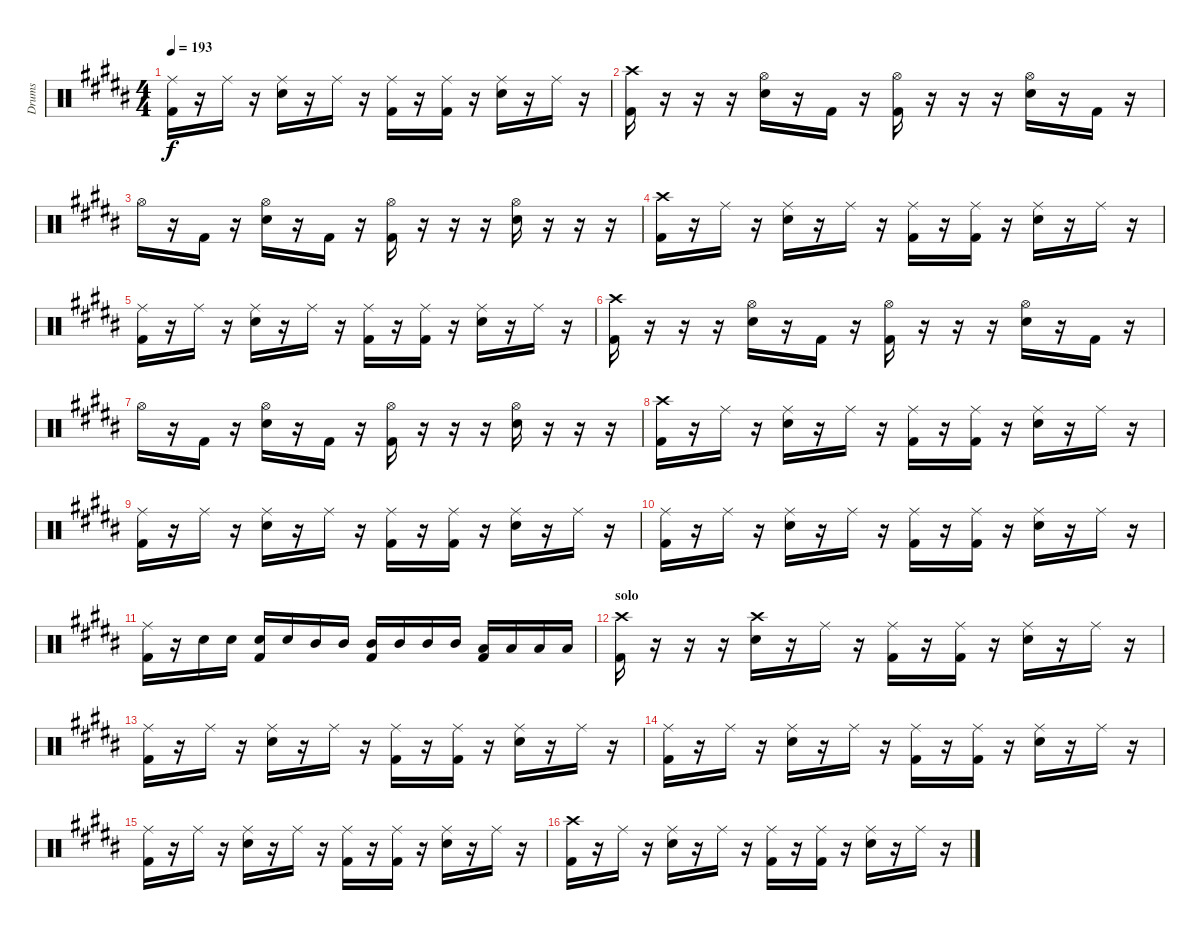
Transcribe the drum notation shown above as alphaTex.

\track ("Drums" "Drums") {instrument percussion}
\staff {score}
\articulation defaults
\ts (4 4)
\tempo 193
\clef neutral
\ks b
("Ride (middle)" "Kick (hit) 2").16{dy f} r.16 "Ride (middle)".16 r.16 ("Electric Snare (hit)" "Ride (middle)").16 r.16 "Ride (middle)".16 r.16 ("Ride (middle)" "Kick (hit) 2").16 r.16 ("Ride (middle)" "Kick (hit) 2").16 r.16 ("Electric Snare (hit)" "Ride (middle)").16 r.16 "Ride (middle)".16 r.16 |
("Crash high (hit)" "Kick (hit) 2").16 r.16 r.16 r.16 ("Electric Snare (hit)" "Hi-Hat (open)").16 r.16 "Kick (hit) 2".16 r.16 ("Hi-Hat (open)" "Kick (hit) 2").16 r.16 r.16 r.16 ("Electric Snare (hit)" "Hi-Hat (open)").16 r.16 "Kick (hit) 2".16 r.16 |
"Hi-Hat (open)".16 r.16 "Kick (hit) 2".16 r.16 ("Electric Snare (hit)" "Hi-Hat (open)").16 r.16 "Kick (hit) 2".16 r.16 ("Hi-Hat (open)" "Kick (hit) 2").16 r.16 r.16 r.16 ("Electric Snare (hit)" "Hi-Hat (open)").16 r.16 r.16 r.16 |
("Crash high (hit)" "Kick (hit) 2").16 r.16 "Ride (middle)".16 r.16 ("Electric Snare (hit)" "Ride (middle)").16 r.16 "Ride (middle)".16 r.16 ("Ride (middle)" "Kick (hit) 2").16 r.16 ("Ride (middle)" "Kick (hit) 2").16 r.16 ("Electric Snare (hit)" "Ride (middle)").16 r.16 "Ride (middle)".16 r.16 |
("Ride (middle)" "Kick (hit) 2").16 r.16 "Ride (middle)".16 r.16 ("Electric Snare (hit)" "Ride (middle)").16 r.16 "Ride (middle)".16 r.16 ("Ride (middle)" "Kick (hit) 2").16 r.16 ("Ride (middle)" "Kick (hit) 2").16 r.16 ("Electric Snare (hit)" "Ride (middle)").16 r.16 "Ride (middle)".16 r.16 |
("Crash high (hit)" "Kick (hit) 2").16 r.16 r.16 r.16 ("Electric Snare (hit)" "Hi-Hat (open)").16 r.16 "Kick (hit) 2".16 r.16 ("Hi-Hat (open)" "Kick (hit) 2").16 r.16 r.16 r.16 ("Electric Snare (hit)" "Hi-Hat (open)").16 r.16 "Kick (hit) 2".16 r.16 |
"Hi-Hat (open)".16 r.16 "Kick (hit) 2".16 r.16 ("Electric Snare (hit)" "Hi-Hat (open)").16 r.16 "Kick (hit) 2".16 r.16 ("Hi-Hat (open)" "Kick (hit) 2").16 r.16 r.16 r.16 ("Electric Snare (hit)" "Hi-Hat (open)").16 r.16 r.16 r.16 |
("Crash high (hit)" "Kick (hit) 2").16 r.16 "Ride (middle)".16 r.16 ("Electric Snare (hit)" "Ride (middle)").16 r.16 "Ride (middle)".16 r.16 ("Ride (middle)" "Kick (hit) 2").16 r.16 ("Ride (middle)" "Kick (hit) 2").16 r.16 ("Electric Snare (hit)" "Ride (middle)").16 r.16 "Ride (middle)".16 r.16 |
("Ride (middle)" "Kick (hit) 2").16 r.16 "Ride (middle)".16 r.16 ("Electric Snare (hit)" "Ride (middle)").16 r.16 "Ride (middle)".16 r.16 ("Ride (middle)" "Kick (hit) 2").16 r.16 ("Ride (middle)" "Kick (hit) 2").16 r.16 ("Electric Snare (hit)" "Ride (middle)").16 r.16 "Ride (middle)".16 r.16 |
("Ride (middle)" "Kick (hit) 2").16 r.16 "Ride (middle)".16 r.16 ("Electric Snare (hit)" "Ride (middle)").16 r.16 "Ride (middle)".16 r.16 ("Ride (middle)" "Kick (hit) 2").16 r.16 ("Ride (middle)" "Kick (hit) 2").16 r.16 ("Electric Snare (hit)" "Ride (middle)").16 r.16 "Ride (middle)".16 r.16 |
("Ride (middle)" "Kick (hit) 2").16 r.16 "Electric Snare (hit)".16 "Electric Snare (hit)".16 ("Electric Snare (hit)" "Kick (hit) 2").16 "Electric Snare (hit)".16 "Mid Tom (hit)".16 "Mid Tom (hit)".16 ("Mid Tom (hit)" "Kick (hit) 2").16 "Mid Tom (hit)".16 "Mid Tom (hit)".16 "Mid Tom (hit)".16 ("Low Tom (hit)" "Kick (hit) 2").16 "Low Tom (hit)".16 "Low Tom (hit)".16 "Low Tom (hit)".16 |
\section ("" "solo")
("Crash high (hit)" "Kick (hit) 2").16 r.16 r.16 r.16 ("Electric Snare (hit)" "Crash high (hit)").16 r.16 "Ride (middle)".16 r.16 ("Ride (middle)" "Kick (hit) 2").16 r.16 ("Ride (middle)" "Kick (hit) 2").16 r.16 ("Electric Snare (hit)" "Ride (middle)").16 r.16 "Ride (middle)".16 r.16 |
("Ride (middle)" "Kick (hit) 2").16 r.16 "Ride (middle)".16 r.16 ("Electric Snare (hit)" "Ride (middle)").16 r.16 "Ride (middle)".16 r.16 ("Ride (middle)" "Kick (hit) 2").16 r.16 ("Ride (middle)" "Kick (hit) 2").16 r.16 ("Electric Snare (hit)" "Ride (middle)").16 r.16 "Ride (middle)".16 r.16 |
("Ride (middle)" "Kick (hit) 2").16 r.16 "Ride (middle)".16 r.16 ("Electric Snare (hit)" "Ride (middle)").16 r.16 "Ride (middle)".16 r.16 ("Ride (middle)" "Kick (hit) 2").16 r.16 ("Ride (middle)" "Kick (hit) 2").16 r.16 ("Electric Snare (hit)" "Ride (middle)").16 r.16 "Ride (middle)".16 r.16 |
("Ride (middle)" "Kick (hit) 2").16 r.16 "Ride (middle)".16 r.16 ("Electric Snare (hit)" "Ride (middle)").16 r.16 "Ride (middle)".16 r.16 ("Ride (middle)" "Kick (hit) 2").16 r.16 ("Ride (middle)" "Kick (hit) 2").16 r.16 ("Electric Snare (hit)" "Ride (middle)").16 r.16 "Ride (middle)".16 r.16 |
("Crash high (hit)" "Kick (hit) 2").16 r.16 "Ride (middle)".16 r.16 ("Electric Snare (hit)" "Ride (middle)").16 r.16 "Ride (middle)".16 r.16 ("Ride (middle)" "Kick (hit) 2").16 r.16 ("Ride (middle)" "Kick (hit) 2").16 r.16 ("Electric Snare (hit)" "Ride (middle)").16 r.16 "Ride (middle)".16 r.16
